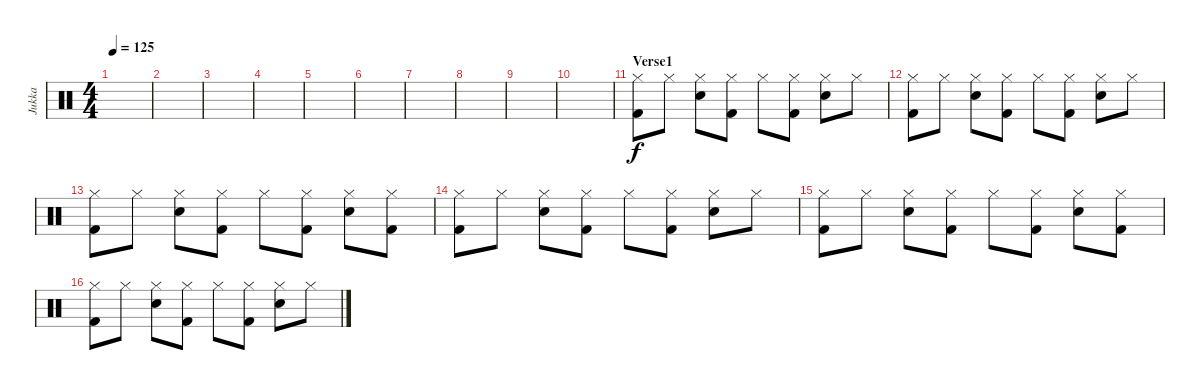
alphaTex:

\track ("Jukka" "Jukka") {instrument percussion}
\staff {score}
\articulation defaults
\ts (4 4)
\tempo 125
\clef neutral
\ks c
|
|
|
|
|
|
|
|
|
|
\section ("" "Verse1")
("Hi-Hat (closed)" "Kick (hit) 2").8 "Hi-Hat (closed)".8 ("Hi-Hat (closed)" "Electric Snare (hit)").8 ("Hi-Hat (closed)" "Kick (hit) 2").8 "Hi-Hat (closed)".8 ("Hi-Hat (closed)" "Kick (hit) 2").8 ("Hi-Hat (closed)" "Electric Snare (hit)").8 "Hi-Hat (closed)".8 |
("Hi-Hat (closed)" "Kick (hit) 2").8 "Hi-Hat (closed)".8 ("Hi-Hat (closed)" "Electric Snare (hit)").8 ("Hi-Hat (closed)" "Kick (hit) 2").8 "Hi-Hat (closed)".8 ("Hi-Hat (closed)" "Kick (hit) 2").8 ("Hi-Hat (closed)" "Electric Snare (hit)").8 "Hi-Hat (closed)".8 |
("Hi-Hat (closed)" "Kick (hit) 2").8 "Hi-Hat (closed)".8 ("Hi-Hat (closed)" "Electric Snare (hit)").8 ("Hi-Hat (closed)" "Kick (hit) 2").8 "Hi-Hat (closed)".8 ("Hi-Hat (closed)" "Kick (hit) 2").8 ("Hi-Hat (closed)" "Electric Snare (hit)").8 ("Hi-Hat (closed)" "Kick (hit) 2").8 |
("Hi-Hat (closed)" "Kick (hit) 2").8 "Hi-Hat (closed)".8 ("Hi-Hat (closed)" "Electric Snare (hit)").8 ("Hi-Hat (closed)" "Kick (hit) 2").8 "Hi-Hat (closed)".8 ("Hi-Hat (closed)" "Kick (hit) 2").8 ("Hi-Hat (closed)" "Electric Snare (hit)").8 "Hi-Hat (closed)".8 |
("Hi-Hat (closed)" "Kick (hit) 2").8 "Hi-Hat (closed)".8 ("Hi-Hat (closed)" "Electric Snare (hit)").8 ("Hi-Hat (closed)" "Kick (hit) 2").8 "Hi-Hat (closed)".8 ("Hi-Hat (closed)" "Kick (hit) 2").8 ("Hi-Hat (closed)" "Electric Snare (hit)").8 ("Hi-Hat (closed)" "Kick (hit) 2").8 |
("Hi-Hat (closed)" "Kick (hit) 2").8 "Hi-Hat (closed)".8 ("Hi-Hat (closed)" "Electric Snare (hit)").8 ("Hi-Hat (closed)" "Kick (hit) 2").8 "Hi-Hat (closed)".8 ("Hi-Hat (closed)" "Kick (hit) 2").8 ("Hi-Hat (closed)" "Electric Snare (hit)").8 "Hi-Hat (closed)".8
